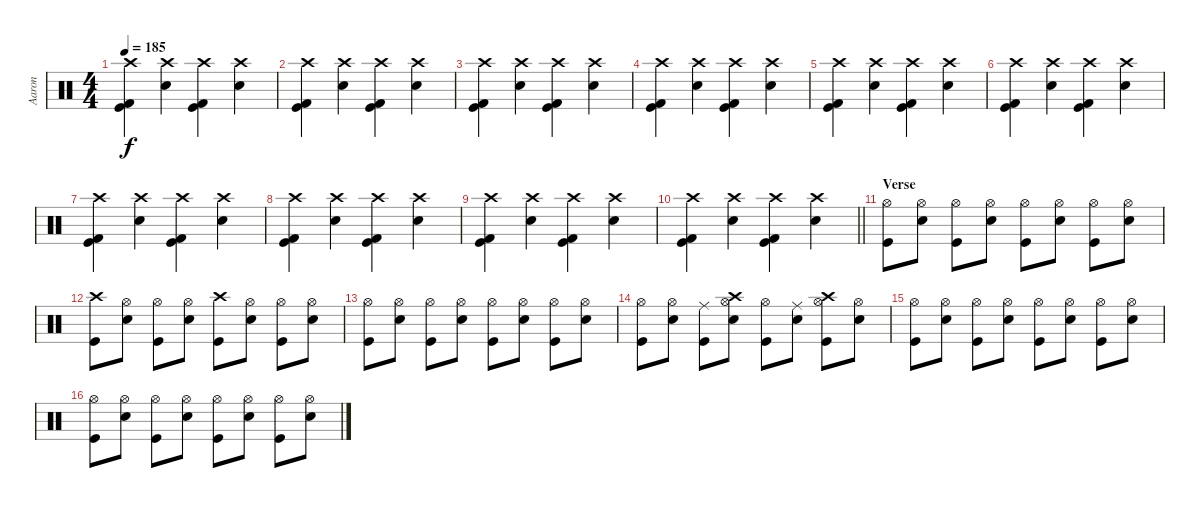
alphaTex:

\track ("Aaron" "Aaron") {instrument percussion}
\staff {score}
\articulation defaults
\ts (4 4)
\tempo 185
\clef neutral
\ks c
("Crash high (hit)" "Kick (hit)" "Kick (hit) 2").4{dy f} ("Crash high (hit)" "Snare (hit) 2").4 ("Crash high (hit)" "Kick (hit)" "Kick (hit) 2").4 ("Crash high (hit)" "Snare (hit) 2").4 |
("Crash high (hit)" "Kick (hit)" "Kick (hit) 2").4 ("Crash high (hit)" "Snare (hit) 2").4 ("Crash high (hit)" "Kick (hit)" "Kick (hit) 2").4 ("Crash high (hit)" "Snare (hit) 2").4 |
("Crash high (hit)" "Kick (hit)" "Kick (hit) 2").4 ("Crash high (hit)" "Snare (hit) 2").4 ("Crash high (hit)" "Kick (hit)" "Kick (hit) 2").4 ("Crash high (hit)" "Snare (hit) 2").4 |
("Crash high (hit)" "Kick (hit)" "Kick (hit) 2").4 ("Crash high (hit)" "Snare (hit) 2").4 ("Crash high (hit)" "Kick (hit)" "Kick (hit) 2").4 ("Crash high (hit)" "Snare (hit) 2").4 |
("Crash high (hit)" "Kick (hit)" "Kick (hit) 2").4 ("Crash high (hit)" "Snare (hit) 2").4 ("Crash high (hit)" "Kick (hit)" "Kick (hit) 2").4 ("Crash high (hit)" "Snare (hit) 2").4 |
("Crash high (hit)" "Kick (hit)" "Kick (hit) 2").4 ("Crash high (hit)" "Snare (hit) 2").4 ("Crash high (hit)" "Kick (hit)" "Kick (hit) 2").4 ("Crash high (hit)" "Snare (hit) 2").4 |
("Crash high (hit)" "Kick (hit)" "Kick (hit) 2").4 ("Crash high (hit)" "Snare (hit) 2").4 ("Crash high (hit)" "Kick (hit)" "Kick (hit) 2").4 ("Crash high (hit)" "Snare (hit) 2").4 |
("Crash high (hit)" "Kick (hit)" "Kick (hit) 2").4 ("Crash high (hit)" "Snare (hit) 2").4 ("Crash high (hit)" "Kick (hit)" "Kick (hit) 2").4 ("Crash high (hit)" "Snare (hit) 2").4 |
("Crash high (hit)" "Kick (hit)" "Kick (hit) 2").4 ("Crash high (hit)" "Snare (hit) 2").4 ("Crash high (hit)" "Kick (hit)" "Kick (hit) 2").4 ("Crash high (hit)" "Snare (hit) 2").4 |
\barLineRight lightlight
("Crash high (hit)" "Kick (hit)" "Kick (hit) 2").4 ("Crash high (hit)" "Snare (hit) 2").4 ("Crash high (hit)" "Kick (hit)" "Kick (hit) 2").4 ("Crash high (hit)" "Snare (hit) 2").4 |
\section ("" "Verse")
("Hi-Hat (open)" "Kick (hit)").8 ("Hi-Hat (open)" "Snare (hit) 2").8 ("Hi-Hat (open)" "Kick (hit)").8 ("Hi-Hat (open)" "Snare (hit) 2").8 ("Hi-Hat (open)" "Kick (hit)").8 ("Hi-Hat (open)" "Snare (hit) 2").8 ("Hi-Hat (open)" "Kick (hit)").8 ("Hi-Hat (open)" "Snare (hit) 2").8 |
("Crash high (hit)" "Kick (hit)").8 ("Hi-Hat (open)" "Snare (hit) 2").8 ("Hi-Hat (open)" "Kick (hit)").8 ("Hi-Hat (open)" "Snare (hit) 2").8 ("Crash high (hit)" "Kick (hit)").8 ("Hi-Hat (open)" "Snare (hit) 2").8 ("Hi-Hat (open)" "Kick (hit)").8 ("Hi-Hat (open)" "Snare (hit) 2").8 |
("Hi-Hat (open)" "Kick (hit)").8 ("Hi-Hat (open)" "Snare (hit) 2").8 ("Hi-Hat (open)" "Kick (hit)").8 ("Hi-Hat (open)" "Snare (hit) 2").8 ("Hi-Hat (open)" "Kick (hit)").8 ("Hi-Hat (open)" "Snare (hit) 2").8 ("Hi-Hat (open)" "Kick (hit)").8 ("Hi-Hat (open)" "Snare (hit) 2").8 |
("Hi-Hat (open)" "Kick (hit)").8 ("Hi-Hat (open)" "Snare (hit) 2").8 ("Ride (middle)" "Kick (hit)").8 ("Crash high (hit)" "Hi-Hat (open)" "Snare (hit) 2").8 ("Hi-Hat (open)" "Kick (hit)").8 ("Ride (middle)" "Snare (hit) 2").8 ("Crash high (hit)" "Hi-Hat (open)" "Kick (hit)").8 ("Hi-Hat (open)" "Snare (hit) 2").8 |
("Hi-Hat (open)" "Kick (hit)").8 ("Hi-Hat (open)" "Snare (hit) 2").8 ("Hi-Hat (open)" "Kick (hit)").8 ("Hi-Hat (open)" "Snare (hit) 2").8 ("Hi-Hat (open)" "Kick (hit)").8 ("Hi-Hat (open)" "Snare (hit) 2").8 ("Hi-Hat (open)" "Kick (hit)").8 ("Hi-Hat (open)" "Snare (hit) 2").8 |
("Hi-Hat (open)" "Kick (hit)").8 ("Hi-Hat (open)" "Snare (hit) 2").8 ("Hi-Hat (open)" "Kick (hit)").8 ("Hi-Hat (open)" "Snare (hit) 2").8 ("Hi-Hat (open)" "Kick (hit)").8 ("Hi-Hat (open)" "Snare (hit) 2").8 ("Hi-Hat (open)" "Kick (hit)").8 ("Hi-Hat (open)" "Snare (hit) 2").8
